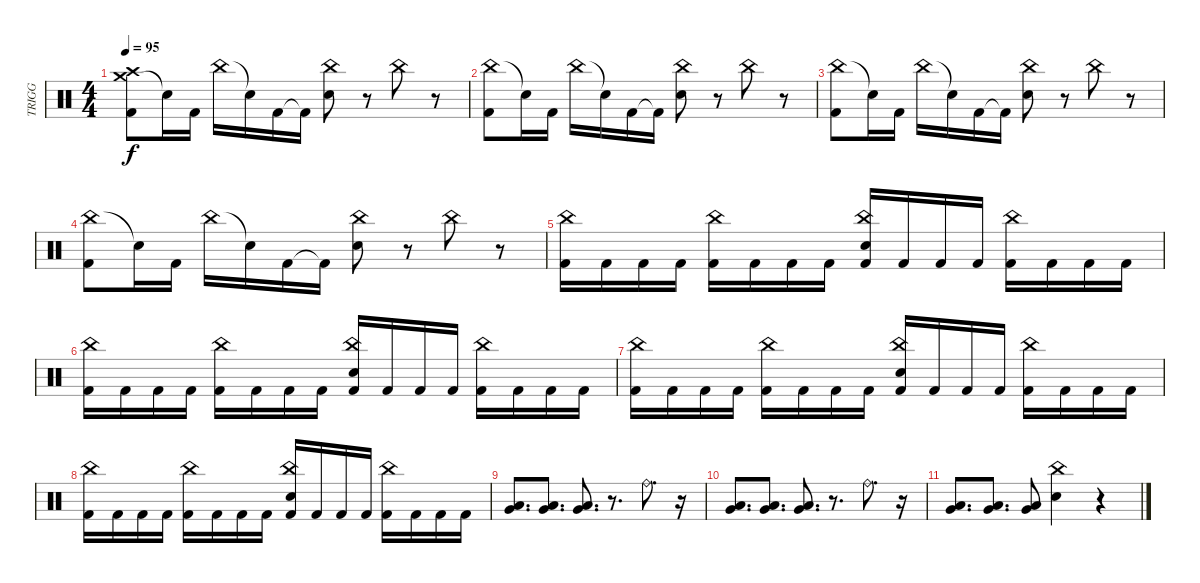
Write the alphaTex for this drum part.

\track ("TRIGG" "TRIGG") {instrument percussion}
\staff {score}
\articulation defaults
\ts (4 4)
\tempo 95
\clef neutral
\ks c
("Crash medium (hit)" "Crash high (hit)" "Kick (hit) 2").8{dy f} "Snare (hit)"{t}.16 "Kick (hit) 2".16 "China (hit)".16 "Snare (hit)"{t}.16 "Kick (hit) 2".16 "Kick (hit) 2"{t}.16 ("China (hit)" "Electric Snare (hit)").8 r.8 "China (hit)".8 r.8 |
("China (hit)" "Kick (hit) 2").8 "Snare (hit)"{t}.16 "Kick (hit) 2".16 "China (hit)".16 "Snare (hit)"{t}.16 "Kick (hit) 2".16 "Kick (hit) 2"{t}.16 ("China (hit)" "Electric Snare (hit)").8 r.8 "China (hit)".8 r.8 |
("China (hit)" "Kick (hit) 2").8 "Snare (hit)"{t}.16 "Kick (hit) 2".16 "China (hit)".16 "Snare (hit)"{t}.16 "Kick (hit) 2".16 "Kick (hit) 2"{t}.16 ("China (hit)" "Electric Snare (hit)").8 r.8 "China (hit)".8 r.8 |
("China (hit)" "Kick (hit) 2").8 "Snare (hit)"{t}.16 "Kick (hit) 2".16 "China (hit)".16 "Snare (hit)"{t}.16 "Kick (hit) 2".16 "Kick (hit) 2"{t}.16 ("China (hit)" "Electric Snare (hit)").8 r.8 "China (hit)".8 r.8 |
("China (hit)" "Kick (hit) 2").16 "Kick (hit) 2".16 "Kick (hit) 2".16 "Kick (hit) 2".16 ("China (hit)" "Kick (hit) 2").16 "Kick (hit) 2".16 "Kick (hit) 2".16 "Kick (hit) 2".16 ("China (hit)" "Electric Snare (hit)" "Kick (hit) 2").16 "Kick (hit) 2".16 "Kick (hit) 2".16 "Kick (hit) 2".16 ("China (hit)" "Kick (hit) 2").16 "Kick (hit) 2".16 "Kick (hit) 2".16 "Kick (hit) 2".16 |
("China (hit)" "Kick (hit) 2").16 "Kick (hit) 2".16 "Kick (hit) 2".16 "Kick (hit) 2".16 ("China (hit)" "Kick (hit) 2").16 "Kick (hit) 2".16 "Kick (hit) 2".16 "Kick (hit) 2".16 ("China (hit)" "Electric Snare (hit)" "Kick (hit) 2").16 "Kick (hit) 2".16 "Kick (hit) 2".16 "Kick (hit) 2".16 ("China (hit)" "Kick (hit) 2").16 "Kick (hit) 2".16 "Kick (hit) 2".16 "Kick (hit) 2".16 |
("China (hit)" "Kick (hit) 2").16 "Kick (hit) 2".16 "Kick (hit) 2".16 "Kick (hit) 2".16 ("China (hit)" "Kick (hit) 2").16 "Kick (hit) 2".16 "Kick (hit) 2".16 "Kick (hit) 2".16 ("China (hit)" "Electric Snare (hit)" "Kick (hit) 2").16 "Kick (hit) 2".16 "Kick (hit) 2".16 "Kick (hit) 2".16 ("China (hit)" "Kick (hit) 2").16 "Kick (hit) 2".16 "Kick (hit) 2".16 "Kick (hit) 2".16 |
("China (hit)" "Kick (hit) 2").16 "Kick (hit) 2".16 "Kick (hit) 2".16 "Kick (hit) 2".16 ("China (hit)" "Kick (hit) 2").16 "Kick (hit) 2".16 "Kick (hit) 2".16 "Kick (hit) 2".16 ("China (hit)" "Electric Snare (hit)" "Kick (hit) 2").16 "Kick (hit) 2".16 "Kick (hit) 2".16 "Kick (hit) 2".16 ("China (hit)" "Kick (hit) 2").16 "Kick (hit) 2".16 "Kick (hit) 2".16 "Kick (hit) 2".16 |
("Very Low Tom (hit)" "Low Floor Tom (hit)").8{d} ("Very Low Tom (hit)" "Low Floor Tom (hit)").8{d} ("Very Low Tom (hit)" "Low Floor Tom (hit)").8{d} r.8{d} "Ride (bell)".8{d} r.16 |
("Very Low Tom (hit)" "Low Floor Tom (hit)").8{d} ("Very Low Tom (hit)" "Low Floor Tom (hit)").8{d} ("Very Low Tom (hit)" "Low Floor Tom (hit)").8{d} r.8{d} "Ride (bell)".8{d} r.16 |
("Very Low Tom (hit)" "Low Floor Tom (hit)").8{d} ("Very Low Tom (hit)" "Low Floor Tom (hit)").8{d} ("Very Low Tom (hit)" "Low Floor Tom (hit)").8 ("China (hit)" "Electric Snare (hit)").4 r.4
